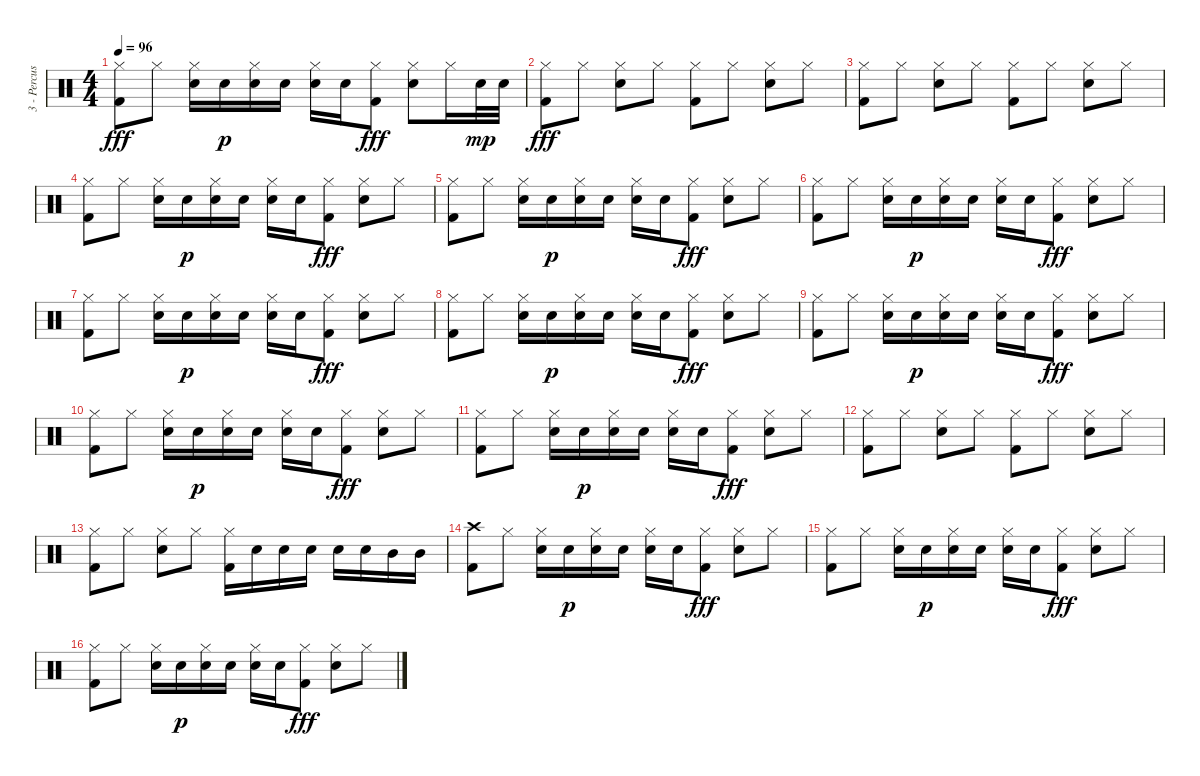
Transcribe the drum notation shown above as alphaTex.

\track ("3 - Percussion" "3 - Percus") {instrument percussion}
\staff {score}
\articulation defaults
\ts (4 4)
\tempo 96
\clef neutral
\ks c
("Hi-Hat (closed)" "Kick (hit) 2").8{dy fff} "Hi-Hat (closed)".8 ("Hi-Hat (closed)" "Snare (hit) 2").16 "Snare (hit) 2".16{dy p} ("Hi-Hat (closed)" "Snare (hit) 2").16 "Snare (hit) 2".16 ("Hi-Hat (closed)" "Snare (hit) 2").16 "Snare (hit) 2".16 ("Hi-Hat (closed)" "Kick (hit) 2").8{dy fff} ("Hi-Hat (closed)" "Snare (hit) 2").8 "Hi-Hat (closed)".16 "Snare (hit) 2".32{dy mp} "Snare (hit) 2".32 |
("Hi-Hat (closed)" "Kick (hit) 2").8{dy fff} "Hi-Hat (closed)".8 ("Hi-Hat (closed)" "Snare (hit) 2").8 "Hi-Hat (closed)".8 ("Hi-Hat (closed)" "Kick (hit) 2").8 "Hi-Hat (closed)".8 ("Hi-Hat (closed)" "Snare (hit) 2").8 "Hi-Hat (closed)".8 |
("Hi-Hat (closed)" "Kick (hit) 2").8 "Hi-Hat (closed)".8 ("Hi-Hat (closed)" "Snare (hit) 2").8 "Hi-Hat (closed)".8 ("Hi-Hat (closed)" "Kick (hit) 2").8 "Hi-Hat (closed)".8 ("Hi-Hat (closed)" "Snare (hit) 2").8 "Hi-Hat (closed)".8 |
("Hi-Hat (closed)" "Kick (hit) 2").8 "Hi-Hat (closed)".8 ("Hi-Hat (closed)" "Snare (hit) 2").16 "Snare (hit) 2".16{dy p} ("Hi-Hat (closed)" "Snare (hit) 2").16 "Snare (hit) 2".16 ("Hi-Hat (closed)" "Snare (hit) 2").16 "Snare (hit) 2".16 ("Hi-Hat (closed)" "Kick (hit) 2").8{dy fff} ("Hi-Hat (closed)" "Snare (hit) 2").8 "Hi-Hat (closed)".8 |
("Hi-Hat (closed)" "Kick (hit) 2").8 "Hi-Hat (closed)".8 ("Hi-Hat (closed)" "Snare (hit) 2").16 "Snare (hit) 2".16{dy p} ("Hi-Hat (closed)" "Snare (hit) 2").16 "Snare (hit) 2".16 ("Hi-Hat (closed)" "Snare (hit) 2").16 "Snare (hit) 2".16 ("Hi-Hat (closed)" "Kick (hit) 2").8{dy fff} ("Hi-Hat (closed)" "Snare (hit) 2").8 "Hi-Hat (closed)".8 |
("Hi-Hat (closed)" "Kick (hit) 2").8 "Hi-Hat (closed)".8 ("Hi-Hat (closed)" "Snare (hit) 2").16 "Snare (hit) 2".16{dy p} ("Hi-Hat (closed)" "Snare (hit) 2").16 "Snare (hit) 2".16 ("Hi-Hat (closed)" "Snare (hit) 2").16 "Snare (hit) 2".16 ("Hi-Hat (closed)" "Kick (hit) 2").8{dy fff} ("Hi-Hat (closed)" "Snare (hit) 2").8 "Hi-Hat (closed)".8 |
("Hi-Hat (closed)" "Kick (hit) 2").8 "Hi-Hat (closed)".8 ("Hi-Hat (closed)" "Snare (hit) 2").16 "Snare (hit) 2".16{dy p} ("Hi-Hat (closed)" "Snare (hit) 2").16 "Snare (hit) 2".16 ("Hi-Hat (closed)" "Snare (hit) 2").16 "Snare (hit) 2".16 ("Hi-Hat (closed)" "Kick (hit) 2").8{dy fff} ("Hi-Hat (closed)" "Snare (hit) 2").8 "Hi-Hat (closed)".8 |
("Hi-Hat (closed)" "Kick (hit) 2").8 "Hi-Hat (closed)".8 ("Hi-Hat (closed)" "Snare (hit) 2").16 "Snare (hit) 2".16{dy p} ("Hi-Hat (closed)" "Snare (hit) 2").16 "Snare (hit) 2".16 ("Hi-Hat (closed)" "Snare (hit) 2").16 "Snare (hit) 2".16 ("Hi-Hat (closed)" "Kick (hit) 2").8{dy fff} ("Hi-Hat (closed)" "Snare (hit) 2").8 "Hi-Hat (closed)".8 |
("Hi-Hat (closed)" "Kick (hit) 2").8 "Hi-Hat (closed)".8 ("Hi-Hat (closed)" "Snare (hit) 2").16 "Snare (hit) 2".16{dy p} ("Hi-Hat (closed)" "Snare (hit) 2").16 "Snare (hit) 2".16 ("Hi-Hat (closed)" "Snare (hit) 2").16 "Snare (hit) 2".16 ("Hi-Hat (closed)" "Kick (hit) 2").8{dy fff} ("Hi-Hat (closed)" "Snare (hit) 2").8 "Hi-Hat (closed)".8 |
("Hi-Hat (closed)" "Kick (hit) 2").8 "Hi-Hat (closed)".8 ("Hi-Hat (closed)" "Snare (hit) 2").16 "Snare (hit) 2".16{dy p} ("Hi-Hat (closed)" "Snare (hit) 2").16 "Snare (hit) 2".16 ("Hi-Hat (closed)" "Snare (hit) 2").16 "Snare (hit) 2".16 ("Hi-Hat (closed)" "Kick (hit) 2").8{dy fff} ("Hi-Hat (closed)" "Snare (hit) 2").8 "Hi-Hat (closed)".8 |
("Hi-Hat (closed)" "Kick (hit) 2").8 "Hi-Hat (closed)".8 ("Hi-Hat (closed)" "Snare (hit) 2").16 "Snare (hit) 2".16{dy p} ("Hi-Hat (closed)" "Snare (hit) 2").16 "Snare (hit) 2".16 ("Hi-Hat (closed)" "Snare (hit) 2").16 "Snare (hit) 2".16 ("Hi-Hat (closed)" "Kick (hit) 2").8{dy fff} ("Hi-Hat (closed)" "Snare (hit) 2").8 "Hi-Hat (closed)".8 |
("Hi-Hat (closed)" "Kick (hit) 2").8 "Hi-Hat (closed)".8 ("Hi-Hat (closed)" "Snare (hit) 2").8 "Hi-Hat (closed)".8 ("Hi-Hat (closed)" "Kick (hit) 2").8 "Hi-Hat (closed)".8 ("Hi-Hat (closed)" "Snare (hit) 2").8 "Hi-Hat (closed)".8 |
("Hi-Hat (closed)" "Kick (hit) 2").8 "Hi-Hat (closed)".8 ("Hi-Hat (closed)" "Snare (hit) 2").8 "Hi-Hat (closed)".8 ("Hi-Hat (closed)" "Kick (hit) 2").16 "Snare (hit) 2".16 "Snare (hit) 2".16 "Snare (hit) 2".16 "Snare (hit) 2".16 "Snare (hit) 2".16 "Mid Tom (hit)".16 "Mid Tom (hit)".16 |
("Crash high (hit)" "Kick (hit) 2").8 "Hi-Hat (closed)".8 ("Hi-Hat (closed)" "Snare (hit) 2").16 "Snare (hit) 2".16{dy p} ("Hi-Hat (closed)" "Snare (hit) 2").16 "Snare (hit) 2".16 ("Hi-Hat (closed)" "Snare (hit) 2").16 "Snare (hit) 2".16 ("Hi-Hat (closed)" "Kick (hit) 2").8{dy fff} ("Hi-Hat (closed)" "Snare (hit) 2").8 "Hi-Hat (closed)".8 |
("Hi-Hat (closed)" "Kick (hit) 2").8 "Hi-Hat (closed)".8 ("Hi-Hat (closed)" "Snare (hit) 2").16 "Snare (hit) 2".16{dy p} ("Hi-Hat (closed)" "Snare (hit) 2").16 "Snare (hit) 2".16 ("Hi-Hat (closed)" "Snare (hit) 2").16 "Snare (hit) 2".16 ("Hi-Hat (closed)" "Kick (hit) 2").8{dy fff} ("Hi-Hat (closed)" "Snare (hit) 2").8 "Hi-Hat (closed)".8 |
("Hi-Hat (closed)" "Kick (hit) 2").8 "Hi-Hat (closed)".8 ("Hi-Hat (closed)" "Snare (hit) 2").16 "Snare (hit) 2".16{dy p} ("Hi-Hat (closed)" "Snare (hit) 2").16 "Snare (hit) 2".16 ("Hi-Hat (closed)" "Snare (hit) 2").16 "Snare (hit) 2".16 ("Hi-Hat (closed)" "Kick (hit) 2").8{dy fff} ("Hi-Hat (closed)" "Snare (hit) 2").8 "Hi-Hat (closed)".8
